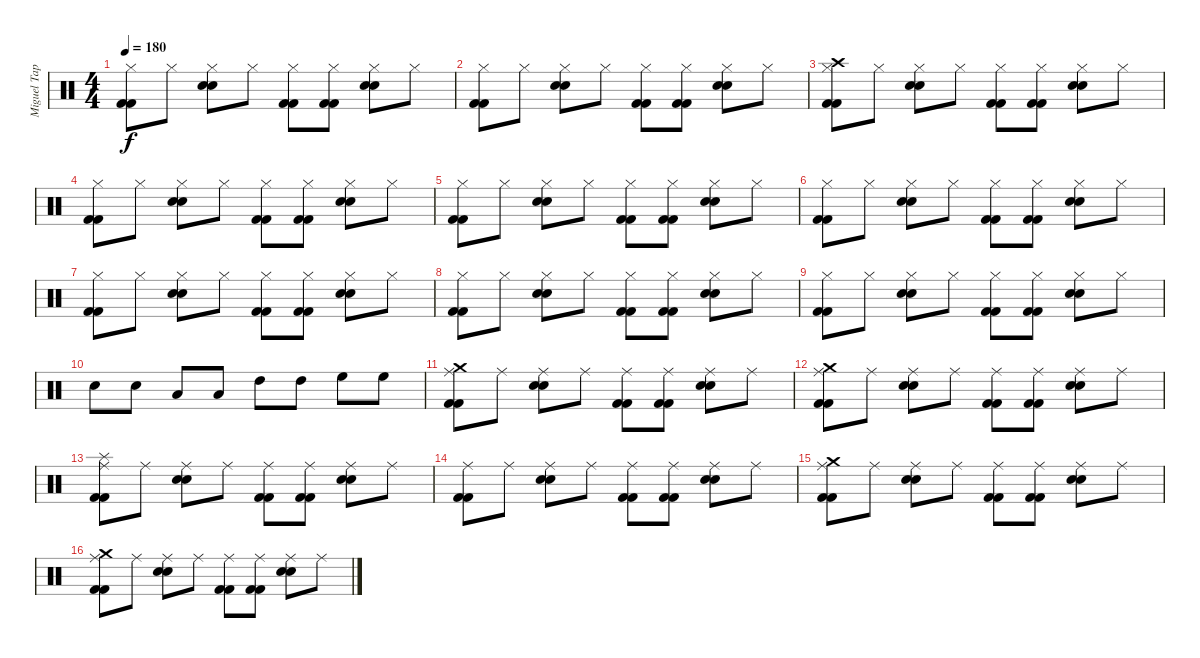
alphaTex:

\track ("Miguel Tapia" "Miguel Tap") {instrument percussion}
\staff {score}
\articulation defaults
\ts (4 4)
\tempo 180
\clef neutral
\ks c
("Hi-Hat (closed)" "Kick (hit) 2" "Kick (hit) 2").8{dy f} "Hi-Hat (closed)".8 ("Hi-Hat (closed)" "Electric Snare (hit)" "Electric Snare (hit)").8 "Hi-Hat (closed)".8 ("Hi-Hat (closed)" "Kick (hit) 2" "Kick (hit) 2").8 ("Hi-Hat (closed)" "Kick (hit) 2" "Kick (hit) 2").8 ("Hi-Hat (closed)" "Electric Snare (hit)" "Electric Snare (hit)").8 "Hi-Hat (closed)".8 |
("Hi-Hat (closed)" "Kick (hit) 2" "Kick (hit) 2").8 "Hi-Hat (closed)".8 ("Hi-Hat (closed)" "Electric Snare (hit)" "Electric Snare (hit)").8 "Hi-Hat (closed)".8 ("Hi-Hat (closed)" "Kick (hit) 2" "Kick (hit) 2").8 ("Hi-Hat (closed)" "Kick (hit) 2" "Kick (hit) 2").8 ("Hi-Hat (closed)" "Electric Snare (hit)" "Electric Snare (hit)").8 "Hi-Hat (closed)".8 |
("Hi-Hat (closed)" "Kick (hit) 2" "Kick (hit) 2" "Crash high (hit)").8 "Hi-Hat (closed)".8 ("Hi-Hat (closed)" "Electric Snare (hit)" "Electric Snare (hit)").8 "Hi-Hat (closed)".8 ("Hi-Hat (closed)" "Kick (hit) 2" "Kick (hit) 2").8 ("Hi-Hat (closed)" "Kick (hit) 2" "Kick (hit) 2").8 ("Hi-Hat (closed)" "Electric Snare (hit)" "Electric Snare (hit)").8 "Hi-Hat (closed)".8 |
("Hi-Hat (closed)" "Kick (hit) 2" "Kick (hit) 2").8 "Hi-Hat (closed)".8 ("Hi-Hat (closed)" "Electric Snare (hit)" "Electric Snare (hit)").8 "Hi-Hat (closed)".8 ("Hi-Hat (closed)" "Kick (hit) 2" "Kick (hit) 2").8 ("Hi-Hat (closed)" "Kick (hit) 2" "Kick (hit) 2").8 ("Hi-Hat (closed)" "Electric Snare (hit)" "Electric Snare (hit)").8 "Hi-Hat (closed)".8 |
("Hi-Hat (closed)" "Kick (hit) 2" "Kick (hit) 2").8 "Hi-Hat (closed)".8 ("Hi-Hat (closed)" "Electric Snare (hit)" "Electric Snare (hit)").8 "Hi-Hat (closed)".8 ("Hi-Hat (closed)" "Kick (hit) 2" "Kick (hit) 2").8 ("Hi-Hat (closed)" "Kick (hit) 2" "Kick (hit) 2").8 ("Hi-Hat (closed)" "Electric Snare (hit)" "Electric Snare (hit)").8 "Hi-Hat (closed)".8 |
("Hi-Hat (closed)" "Kick (hit) 2" "Kick (hit) 2").8 "Hi-Hat (closed)".8 ("Hi-Hat (closed)" "Electric Snare (hit)" "Electric Snare (hit)").8 "Hi-Hat (closed)".8 ("Hi-Hat (closed)" "Kick (hit) 2" "Kick (hit) 2").8 ("Hi-Hat (closed)" "Kick (hit) 2" "Kick (hit) 2").8 ("Hi-Hat (closed)" "Electric Snare (hit)" "Electric Snare (hit)").8 "Hi-Hat (closed)".8 |
("Hi-Hat (closed)" "Kick (hit) 2" "Kick (hit) 2").8 "Hi-Hat (closed)".8 ("Hi-Hat (closed)" "Electric Snare (hit)" "Electric Snare (hit)").8 "Hi-Hat (closed)".8 ("Hi-Hat (closed)" "Kick (hit) 2" "Kick (hit) 2").8 ("Hi-Hat (closed)" "Kick (hit) 2" "Kick (hit) 2").8 ("Hi-Hat (closed)" "Electric Snare (hit)" "Electric Snare (hit)").8 "Hi-Hat (closed)".8 |
("Hi-Hat (closed)" "Kick (hit) 2" "Kick (hit) 2").8 "Hi-Hat (closed)".8 ("Hi-Hat (closed)" "Electric Snare (hit)" "Electric Snare (hit)").8 "Hi-Hat (closed)".8 ("Hi-Hat (closed)" "Kick (hit) 2" "Kick (hit) 2").8 ("Hi-Hat (closed)" "Kick (hit) 2" "Kick (hit) 2").8 ("Hi-Hat (closed)" "Electric Snare (hit)" "Electric Snare (hit)").8 "Hi-Hat (closed)".8 |
("Hi-Hat (closed)" "Kick (hit) 2" "Kick (hit) 2").8 "Hi-Hat (closed)".8 ("Hi-Hat (closed)" "Electric Snare (hit)" "Electric Snare (hit)").8 "Hi-Hat (closed)".8 ("Hi-Hat (closed)" "Kick (hit) 2" "Kick (hit) 2").8 ("Hi-Hat (closed)" "Kick (hit) 2" "Kick (hit) 2").8 ("Hi-Hat (closed)" "Electric Snare (hit)" "Electric Snare (hit)").8 "Hi-Hat (closed)".8 |
"Snare (hit) 2".8 "Snare (hit) 2".8 "Low Tom (hit)".8 "Low Tom (hit)".8 "High Tom (hit)".8 "High Tom (hit)".8 "High Floor Tom (hit)".8 "High Floor Tom (hit)".8 |
("Ride (middle)" "Kick (hit) 2" "Kick (hit) 2" "Crash medium (hit)").8 "Ride (middle)".8 ("Ride (middle)" "Electric Snare (hit)" "Electric Snare (hit)").8 "Ride (middle)".8 ("Ride (middle)" "Kick (hit) 2" "Kick (hit) 2").8 ("Ride (middle)" "Kick (hit) 2" "Kick (hit) 2").8 ("Ride (middle)" "Electric Snare (hit)" "Electric Snare (hit)").8 "Ride (middle)".8 |
("Ride (middle)" "Kick (hit) 2" "Kick (hit) 2" "Crash medium (hit)").8 "Ride (middle)".8 ("Ride (middle)" "Electric Snare (hit)" "Electric Snare (hit)").8 "Ride (middle)".8 ("Ride (middle)" "Kick (hit) 2" "Kick (hit) 2").8 ("Ride (middle)" "Kick (hit) 2" "Kick (hit) 2").8 ("Ride (middle)" "Electric Snare (hit)" "Electric Snare (hit)").8 "Ride (middle)".8 |
("Ride (middle)" "Kick (hit) 2" "Kick (hit) 2" "Splash (hit)").8 "Ride (middle)".8 ("Ride (middle)" "Electric Snare (hit)" "Electric Snare (hit)").8 "Ride (middle)".8 ("Ride (middle)" "Kick (hit) 2" "Kick (hit) 2").8 ("Ride (middle)" "Kick (hit) 2" "Kick (hit) 2").8 ("Ride (middle)" "Electric Snare (hit)" "Electric Snare (hit)").8 "Ride (middle)".8 |
("Ride (middle)" "Kick (hit) 2" "Kick (hit) 2").8 "Ride (middle)".8 ("Ride (middle)" "Electric Snare (hit)" "Electric Snare (hit)").8 "Ride (middle)".8 ("Ride (middle)" "Kick (hit) 2" "Kick (hit) 2").8 ("Ride (middle)" "Kick (hit) 2" "Kick (hit) 2").8 ("Ride (middle)" "Electric Snare (hit)" "Electric Snare (hit)").8 "Ride (middle)".8 |
("Ride (middle)" "Kick (hit) 2" "Kick (hit) 2" "Crash medium (hit)").8 "Ride (middle)".8 ("Ride (middle)" "Electric Snare (hit)" "Electric Snare (hit)").8 "Ride (middle)".8 ("Ride (middle)" "Kick (hit) 2" "Kick (hit) 2").8 ("Ride (middle)" "Kick (hit) 2" "Kick (hit) 2").8 ("Ride (middle)" "Electric Snare (hit)" "Electric Snare (hit)").8 "Ride (middle)".8 |
("Ride (middle)" "Kick (hit) 2" "Kick (hit) 2" "Crash medium (hit)").8 "Ride (middle)".8 ("Ride (middle)" "Electric Snare (hit)" "Electric Snare (hit)").8 "Ride (middle)".8 ("Ride (middle)" "Kick (hit) 2" "Kick (hit) 2").8 ("Ride (middle)" "Kick (hit) 2" "Kick (hit) 2").8 ("Ride (middle)" "Electric Snare (hit)" "Electric Snare (hit)").8 "Ride (middle)".8
